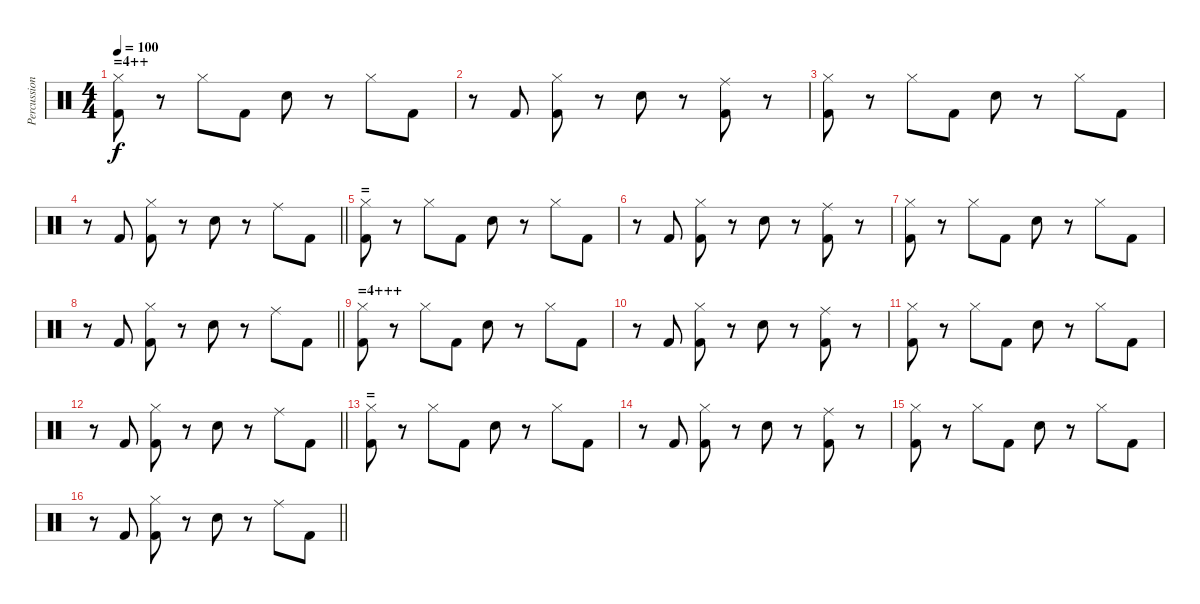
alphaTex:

\track ("Percussion" "Percussion") {instrument percussion}
\staff {score}
\articulation defaults
\ts (4 4)
\section ("" "=4++")
\tempo 100
\clef neutral
\ks c
("Kick (hit) 2" "Hi-Hat (closed)").8{dy f} r.8 "Hi-Hat (closed)".8 "Kick (hit) 2".8 "Electric Snare (hit)".8 r.8 "Hi-Hat (closed)".8 "Kick (hit) 2".8 |
r.8 "Kick (hit) 2".8 ("Kick (hit) 2" "Hi-Hat (closed)").8 r.8 "Electric Snare (hit)".8 r.8 ("Kick (hit) 2" "Ride (middle)").8 r.8 |
("Kick (hit) 2" "Hi-Hat (closed)").8 r.8 "Hi-Hat (closed)".8 "Kick (hit) 2".8 "Electric Snare (hit)".8 r.8 "Hi-Hat (closed)".8 "Kick (hit) 2".8 |
\barLineRight lightlight
r.8 "Kick (hit) 2".8 ("Kick (hit) 2" "Hi-Hat (closed)").8 r.8 "Electric Snare (hit)".8 r.8 "Ride (middle)".8 "Kick (hit) 2".8 |
\section ("" "=")
("Kick (hit) 2" "Hi-Hat (closed)").8 r.8 "Hi-Hat (closed)".8 "Kick (hit) 2".8 "Electric Snare (hit)".8 r.8 "Hi-Hat (closed)".8 "Kick (hit) 2".8 |
r.8 "Kick (hit) 2".8 ("Kick (hit) 2" "Hi-Hat (closed)").8 r.8 "Electric Snare (hit)".8 r.8 ("Kick (hit) 2" "Ride (middle)").8 r.8 |
("Kick (hit) 2" "Hi-Hat (closed)").8 r.8 "Hi-Hat (closed)".8 "Kick (hit) 2".8 "Electric Snare (hit)".8 r.8 "Hi-Hat (closed)".8 "Kick (hit) 2".8 |
\barLineRight lightlight
r.8 "Kick (hit) 2".8 ("Kick (hit) 2" "Hi-Hat (closed)").8 r.8 "Electric Snare (hit)".8 r.8 "Ride (middle)".8 "Kick (hit) 2".8 |
\section ("" "=4+++")
("Kick (hit) 2" "Hi-Hat (closed)").8 r.8 "Hi-Hat (closed)".8 "Kick (hit) 2".8 "Electric Snare (hit)".8 r.8 "Hi-Hat (closed)".8 "Kick (hit) 2".8 |
r.8 "Kick (hit) 2".8 ("Kick (hit) 2" "Hi-Hat (closed)").8 r.8 "Electric Snare (hit)".8 r.8 ("Kick (hit) 2" "Ride (middle)").8 r.8 |
("Kick (hit) 2" "Hi-Hat (closed)").8 r.8 "Hi-Hat (closed)".8 "Kick (hit) 2".8 "Electric Snare (hit)".8 r.8 "Hi-Hat (closed)".8 "Kick (hit) 2".8 |
\barLineRight lightlight
r.8 "Kick (hit) 2".8 ("Kick (hit) 2" "Hi-Hat (closed)").8 r.8 "Electric Snare (hit)".8 r.8 "Ride (middle)".8 "Kick (hit) 2".8 |
\section ("" "=")
("Kick (hit) 2" "Hi-Hat (closed)").8 r.8 "Hi-Hat (closed)".8 "Kick (hit) 2".8 "Electric Snare (hit)".8 r.8 "Hi-Hat (closed)".8 "Kick (hit) 2".8 |
r.8 "Kick (hit) 2".8 ("Kick (hit) 2" "Hi-Hat (closed)").8 r.8 "Electric Snare (hit)".8 r.8 ("Kick (hit) 2" "Ride (middle)").8 r.8 |
("Kick (hit) 2" "Hi-Hat (closed)").8 r.8 "Hi-Hat (closed)".8 "Kick (hit) 2".8 "Electric Snare (hit)".8 r.8 "Hi-Hat (closed)".8 "Kick (hit) 2".8 |
\barLineRight lightlight
r.8 "Kick (hit) 2".8 ("Kick (hit) 2" "Hi-Hat (closed)").8 r.8 "Electric Snare (hit)".8 r.8 "Ride (middle)".8 "Kick (hit) 2".8
